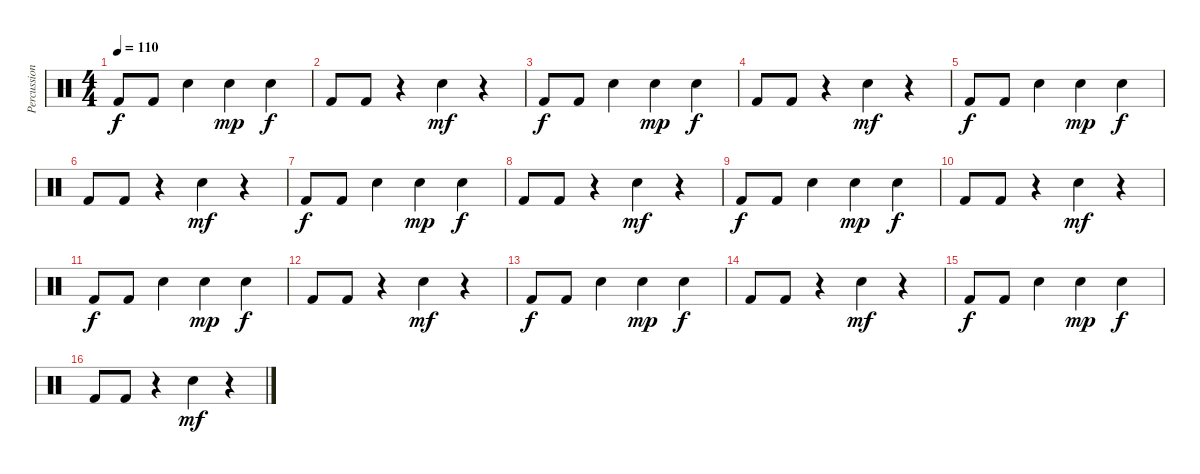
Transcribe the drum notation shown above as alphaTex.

\track ("Percussions" "Percussion") {instrument percussion}
\staff {score}
\articulation defaults
\ts (4 4)
\tempo 110
\clef neutral
\ks c "Kick (hit) 2".8{dy f} "Kick (hit) 2".8 "Snare (hit) 2".4 "Snare (hit) 2".4{dy mp} "Snare (hit) 2".4{dy f}
|
"Kick (hit) 2".8 "Kick (hit) 2".8 r.4 "Snare (hit) 2".4{dy mf} r.4 |
"Kick (hit) 2".8{dy f} "Kick (hit) 2".8 "Snare (hit) 2".4 "Snare (hit) 2".4{dy mp} "Snare (hit) 2".4{dy f} |
"Kick (hit) 2".8 "Kick (hit) 2".8 r.4 "Snare (hit) 2".4{dy mf} r.4 |
"Kick (hit) 2".8{dy f} "Kick (hit) 2".8 "Snare (hit) 2".4 "Snare (hit) 2".4{dy mp} "Snare (hit) 2".4{dy f} |
"Kick (hit) 2".8 "Kick (hit) 2".8 r.4 "Snare (hit) 2".4{dy mf} r.4 |
"Kick (hit) 2".8{dy f} "Kick (hit) 2".8 "Snare (hit) 2".4 "Snare (hit) 2".4{dy mp} "Snare (hit) 2".4{dy f} |
"Kick (hit) 2".8 "Kick (hit) 2".8 r.4 "Snare (hit) 2".4{dy mf} r.4 |
"Kick (hit) 2".8{dy f} "Kick (hit) 2".8 "Snare (hit) 2".4 "Snare (hit) 2".4{dy mp} "Snare (hit) 2".4{dy f} |
"Kick (hit) 2".8 "Kick (hit) 2".8 r.4 "Snare (hit) 2".4{dy mf} r.4 |
"Kick (hit) 2".8{dy f} "Kick (hit) 2".8 "Snare (hit) 2".4 "Snare (hit) 2".4{dy mp} "Snare (hit) 2".4{dy f} |
"Kick (hit) 2".8 "Kick (hit) 2".8 r.4 "Snare (hit) 2".4{dy mf} r.4 |
"Kick (hit) 2".8{dy f} "Kick (hit) 2".8 "Snare (hit) 2".4 "Snare (hit) 2".4{dy mp} "Snare (hit) 2".4{dy f} |
"Kick (hit) 2".8 "Kick (hit) 2".8 r.4 "Snare (hit) 2".4{dy mf} r.4 |
"Kick (hit) 2".8{dy f} "Kick (hit) 2".8 "Snare (hit) 2".4 "Snare (hit) 2".4{dy mp} "Snare (hit) 2".4{dy f} |
"Kick (hit) 2".8 "Kick (hit) 2".8 r.4 "Snare (hit) 2".4{dy mf} r.4
